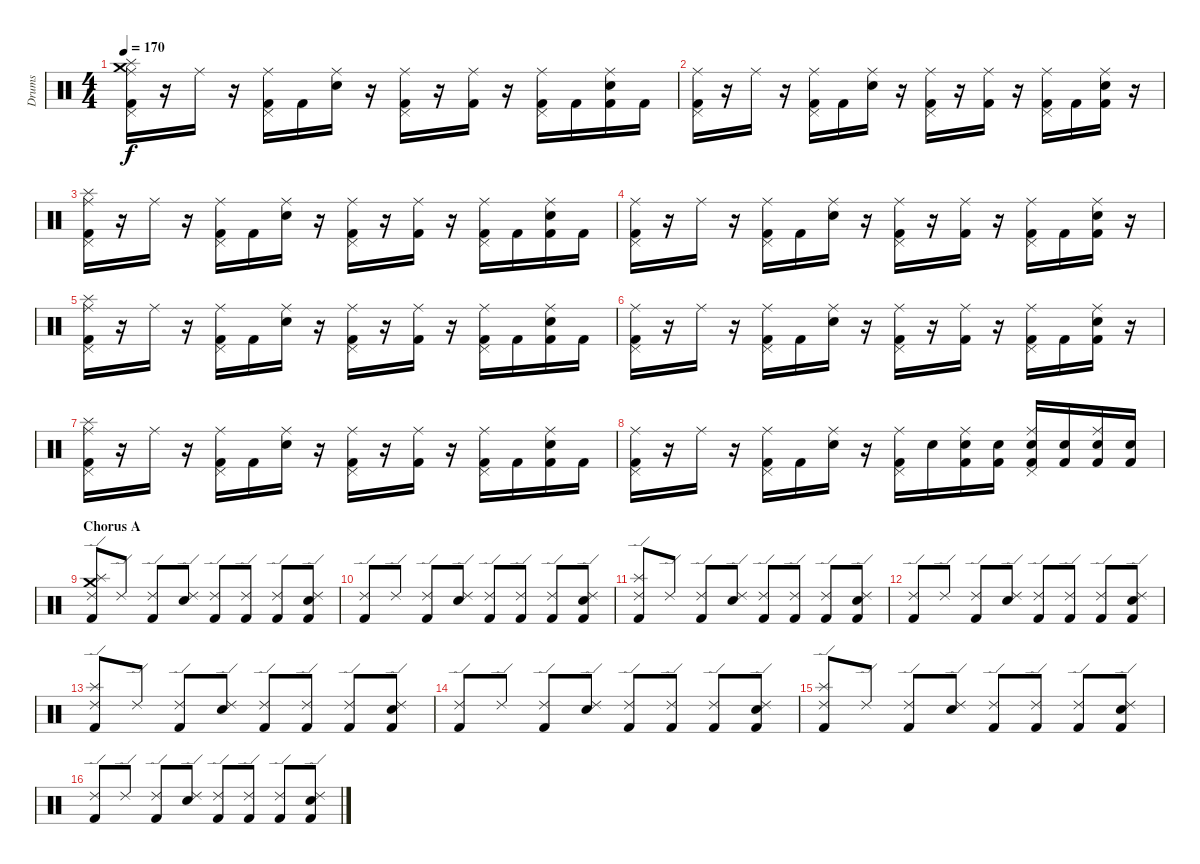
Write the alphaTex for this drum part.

\track ("Drums" "Drums") {instrument percussion}
\staff {score}
\articulation defaults
\ts (4 4)
\tempo 170
\clef neutral
\ks c
("Kick (hit) 2" "Crash medium (hit)" "Pedal Hi-Hat (hit)" "Splash (hit)" "Ride (middle)").16{dy f} r.16 "Ride (middle)".16 r.16 ("Kick (hit) 2" "Pedal Hi-Hat (hit)" "Ride (middle)").16 "Kick (hit) 2".16 ("Snare (hit) 2" "Ride (middle)").16 r.16 ("Kick (hit) 2" "Pedal Hi-Hat (hit)" "Ride (middle)").16 r.16 ("Kick (hit) 2" "Ride (middle)").16 r.16 ("Kick (hit) 2" "Pedal Hi-Hat (hit)" "Ride (middle)").16 "Kick (hit) 2".16 ("Kick (hit) 2" "Snare (hit) 2" "Ride (middle)").16 "Kick (hit) 2".16 |
("Kick (hit) 2" "Pedal Hi-Hat (hit)" "Ride (middle)").16 r.16 "Ride (middle)".16 r.16 ("Kick (hit) 2" "Pedal Hi-Hat (hit)" "Ride (middle)").16 "Kick (hit) 2".16 ("Snare (hit) 2" "Ride (middle)").16 r.16 ("Kick (hit) 2" "Pedal Hi-Hat (hit)" "Ride (middle)").16 r.16 ("Kick (hit) 2" "Ride (middle)").16 r.16 ("Kick (hit) 2" "Pedal Hi-Hat (hit)" "Ride (middle)").16 "Kick (hit) 2".16 ("Kick (hit) 2" "Snare (hit) 2" "Ride (middle)").16 r.16 |
("Kick (hit) 2" "Pedal Hi-Hat (hit)" "Splash (hit)" "Ride (middle)").16 r.16 "Ride (middle)".16 r.16 ("Kick (hit) 2" "Pedal Hi-Hat (hit)" "Ride (middle)").16 "Kick (hit) 2".16 ("Snare (hit) 2" "Ride (middle)").16 r.16 ("Kick (hit) 2" "Pedal Hi-Hat (hit)" "Ride (middle)").16 r.16 ("Kick (hit) 2" "Ride (middle)").16 r.16 ("Kick (hit) 2" "Pedal Hi-Hat (hit)" "Ride (middle)").16 "Kick (hit) 2".16 ("Kick (hit) 2" "Snare (hit) 2" "Ride (middle)").16 "Kick (hit) 2".16 |
("Kick (hit) 2" "Pedal Hi-Hat (hit)" "Ride (middle)").16 r.16 "Ride (middle)".16 r.16 ("Kick (hit) 2" "Pedal Hi-Hat (hit)" "Ride (middle)").16 "Kick (hit) 2".16 ("Snare (hit) 2" "Ride (middle)").16 r.16 ("Kick (hit) 2" "Pedal Hi-Hat (hit)" "Ride (middle)").16 r.16 ("Kick (hit) 2" "Ride (middle)").16 r.16 ("Kick (hit) 2" "Pedal Hi-Hat (hit)" "Ride (middle)").16 "Kick (hit) 2".16 ("Kick (hit) 2" "Snare (hit) 2" "Ride (middle)").16 r.16 |
("Kick (hit) 2" "Pedal Hi-Hat (hit)" "Splash (hit)" "Ride (middle)").16 r.16 "Ride (middle)".16 r.16 ("Kick (hit) 2" "Pedal Hi-Hat (hit)" "Ride (middle)").16 "Kick (hit) 2".16 ("Snare (hit) 2" "Ride (middle)").16 r.16 ("Kick (hit) 2" "Pedal Hi-Hat (hit)" "Ride (middle)").16 r.16 ("Kick (hit) 2" "Ride (middle)").16 r.16 ("Kick (hit) 2" "Pedal Hi-Hat (hit)" "Ride (middle)").16 "Kick (hit) 2".16 ("Kick (hit) 2" "Snare (hit) 2" "Ride (middle)").16 "Kick (hit) 2".16 |
("Kick (hit) 2" "Pedal Hi-Hat (hit)" "Ride (middle)").16 r.16 "Ride (middle)".16 r.16 ("Kick (hit) 2" "Pedal Hi-Hat (hit)" "Ride (middle)").16 "Kick (hit) 2".16 ("Snare (hit) 2" "Ride (middle)").16 r.16 ("Kick (hit) 2" "Pedal Hi-Hat (hit)" "Ride (middle)").16 r.16 ("Kick (hit) 2" "Ride (middle)").16 r.16 ("Kick (hit) 2" "Pedal Hi-Hat (hit)" "Ride (middle)").16 "Kick (hit) 2".16 ("Kick (hit) 2" "Snare (hit) 2" "Ride (middle)").16 r.16 |
("Kick (hit) 2" "Pedal Hi-Hat (hit)" "Splash (hit)" "Ride (middle)").16 r.16 "Ride (middle)".16 r.16 ("Kick (hit) 2" "Pedal Hi-Hat (hit)" "Ride (middle)").16 "Kick (hit) 2".16 ("Snare (hit) 2" "Ride (middle)").16 r.16 ("Kick (hit) 2" "Pedal Hi-Hat (hit)" "Ride (middle)").16 r.16 ("Kick (hit) 2" "Ride (middle)").16 r.16 ("Kick (hit) 2" "Pedal Hi-Hat (hit)" "Ride (middle)").16 "Kick (hit) 2".16 ("Kick (hit) 2" "Snare (hit) 2" "Ride (middle)").16 "Kick (hit) 2".16 |
("Kick (hit) 2" "Pedal Hi-Hat (hit)" "Ride (middle)").16 r.16 "Ride (middle)".16 r.16 ("Kick (hit) 2" "Pedal Hi-Hat (hit)" "Ride (middle)").16 "Kick (hit) 2".16 ("Snare (hit) 2" "Ride (middle)").16 r.16 ("Kick (hit) 2" "Pedal Hi-Hat (hit)" "Ride (middle)").16 "Snare (hit)".16 ("Kick (hit) 2" "Snare (hit) 2" "Ride (middle)").16 ("Kick (hit) 2" "Snare (hit) 2").16 ("Kick (hit) 2" "Snare (hit) 2" "Pedal Hi-Hat (hit)" "Ride (middle)").16 ("Kick (hit) 2" "Snare (hit) 2").16 ("Kick (hit) 2" "Snare (hit) 2" "Ride (middle)").16 ("Kick (hit) 2" "Snare (hit) 2").16 |
\section ("" "Chorus A")
("Kick (hit) 2" "Crash medium (hit)" "Splash (hit)" "Ride (edge) 2").8 "Ride (edge) 2".8 ("Kick (hit) 2" "Ride (edge) 2").8 ("Snare (hit) 2" "Ride (edge) 2").8 ("Kick (hit) 2" "Ride (edge) 2").8 ("Kick (hit) 2" "Ride (edge) 2").8 ("Kick (hit) 2" "Ride (edge) 2").8 ("Kick (hit) 2" "Snare (hit) 2" "Ride (edge) 2").8 |
("Kick (hit) 2" "Ride (edge) 2").8 "Ride (edge) 2".8 ("Kick (hit) 2" "Ride (edge) 2").8 ("Snare (hit) 2" "Ride (edge) 2").8 ("Kick (hit) 2" "Ride (edge) 2").8 ("Kick (hit) 2" "Ride (edge) 2").8 ("Kick (hit) 2" "Ride (edge) 2").8 ("Kick (hit) 2" "Snare (hit) 2" "Ride (edge) 2").8 |
("Kick (hit) 2" "Splash (hit)" "Ride (edge) 2").8 "Ride (edge) 2".8 ("Kick (hit) 2" "Ride (edge) 2").8 ("Snare (hit) 2" "Ride (edge) 2").8 ("Kick (hit) 2" "Ride (edge) 2").8 ("Kick (hit) 2" "Ride (edge) 2").8 ("Kick (hit) 2" "Ride (edge) 2").8 ("Kick (hit) 2" "Snare (hit) 2" "Ride (edge) 2").8 |
("Kick (hit) 2" "Ride (edge) 2").8 "Ride (edge) 2".8 ("Kick (hit) 2" "Ride (edge) 2").8 ("Snare (hit) 2" "Ride (edge) 2").8 ("Kick (hit) 2" "Ride (edge) 2").8 ("Kick (hit) 2" "Ride (edge) 2").8 ("Kick (hit) 2" "Ride (edge) 2").8 ("Kick (hit) 2" "Snare (hit) 2" "Ride (edge) 2").8 |
("Kick (hit) 2" "Splash (hit)" "Ride (edge) 2").8 "Ride (edge) 2".8 ("Kick (hit) 2" "Ride (edge) 2").8 ("Snare (hit) 2" "Ride (edge) 2").8 ("Kick (hit) 2" "Ride (edge) 2").8 ("Kick (hit) 2" "Ride (edge) 2").8 ("Kick (hit) 2" "Ride (edge) 2").8 ("Kick (hit) 2" "Snare (hit) 2" "Ride (edge) 2").8 |
("Kick (hit) 2" "Ride (edge) 2").8 "Ride (edge) 2".8 ("Kick (hit) 2" "Ride (edge) 2").8 ("Snare (hit) 2" "Ride (edge) 2").8 ("Kick (hit) 2" "Ride (edge) 2").8 ("Kick (hit) 2" "Ride (edge) 2").8 ("Kick (hit) 2" "Ride (edge) 2").8 ("Kick (hit) 2" "Snare (hit) 2" "Ride (edge) 2").8 |
("Kick (hit) 2" "Splash (hit)" "Ride (edge) 2").8 "Ride (edge) 2".8 ("Kick (hit) 2" "Ride (edge) 2").8 ("Snare (hit) 2" "Ride (edge) 2").8 ("Kick (hit) 2" "Ride (edge) 2").8 ("Kick (hit) 2" "Ride (edge) 2").8 ("Kick (hit) 2" "Ride (edge) 2").8 ("Kick (hit) 2" "Snare (hit) 2" "Ride (edge) 2").8 |
("Kick (hit) 2" "Ride (edge) 2").8 "Ride (edge) 2".8 ("Kick (hit) 2" "Ride (edge) 2").8 ("Snare (hit) 2" "Ride (edge) 2").8 ("Kick (hit) 2" "Ride (edge) 2").8 ("Kick (hit) 2" "Ride (edge) 2").8 ("Kick (hit) 2" "Ride (edge) 2").8 ("Kick (hit) 2" "Snare (hit) 2" "Ride (edge) 2").8
